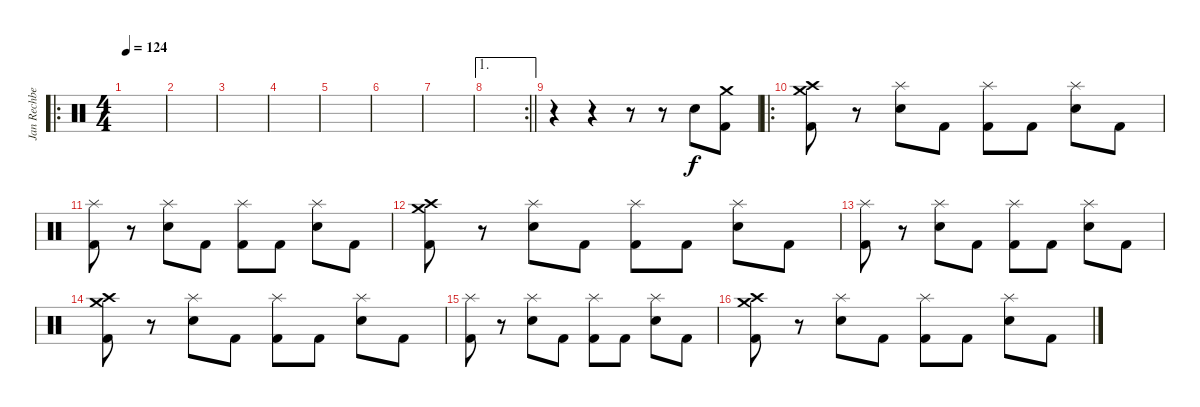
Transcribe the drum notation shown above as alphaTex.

\track ("Jan Rechberger" "Jan Rechbe") {instrument percussion}
\staff {score}
\articulation defaults
\ro
\ts (4 4)
\tempo 124
\clef neutral
\ks c
|
|
|
|
|
|
|
\ae 1
\rc 2
\barLineRight lightlight
|
r.4 r.4 r.8 r.8 "Snare (hit) 2".8 ("Crash medium (hit)" "Kick (hit) 2").8 |
\ro
("Crash medium (hit)" "Crash high (hit)" "Kick (hit) 2").8 r.8 ("Splash (hit)" "Snare (hit) 2").8 "Kick (hit) 2".8 ("Splash (hit)" "Kick (hit) 2").8 "Kick (hit) 2".8 ("Splash (hit)" "Snare (hit) 2").8 "Kick (hit) 2".8 |
("Splash (hit)" "Kick (hit) 2").8 r.8 ("Splash (hit)" "Snare (hit) 2").8 "Kick (hit) 2".8 ("Splash (hit)" "Kick (hit) 2").8 "Kick (hit) 2".8 ("Splash (hit)" "Snare (hit) 2").8 "Kick (hit) 2".8 |
("Crash medium (hit)" "Crash high (hit)" "Kick (hit) 2").8 r.8 ("Splash (hit)" "Snare (hit) 2").8 "Kick (hit) 2".8 ("Splash (hit)" "Kick (hit) 2").8 "Kick (hit) 2".8 ("Splash (hit)" "Snare (hit) 2").8 "Kick (hit) 2".8 |
("Splash (hit)" "Kick (hit) 2").8 r.8 ("Splash (hit)" "Snare (hit) 2").8 "Kick (hit) 2".8 ("Splash (hit)" "Kick (hit) 2").8 "Kick (hit) 2".8 ("Splash (hit)" "Snare (hit) 2").8 "Kick (hit) 2".8 |
("Crash medium (hit)" "Crash high (hit)" "Kick (hit) 2").8 r.8 ("Splash (hit)" "Snare (hit) 2").8 "Kick (hit) 2".8 ("Splash (hit)" "Kick (hit) 2").8 "Kick (hit) 2".8 ("Splash (hit)" "Snare (hit) 2").8 "Kick (hit) 2".8 |
("Splash (hit)" "Kick (hit) 2").8 r.8 ("Splash (hit)" "Snare (hit) 2").8 "Kick (hit) 2".8 ("Splash (hit)" "Kick (hit) 2").8 "Kick (hit) 2".8 ("Splash (hit)" "Snare (hit) 2").8 "Kick (hit) 2".8 |
("Crash medium (hit)" "Crash high (hit)" "Kick (hit) 2").8 r.8 ("Splash (hit)" "Snare (hit) 2").8 "Kick (hit) 2".8 ("Splash (hit)" "Kick (hit) 2").8 "Kick (hit) 2".8 ("Splash (hit)" "Snare (hit) 2").8 "Kick (hit) 2".8
